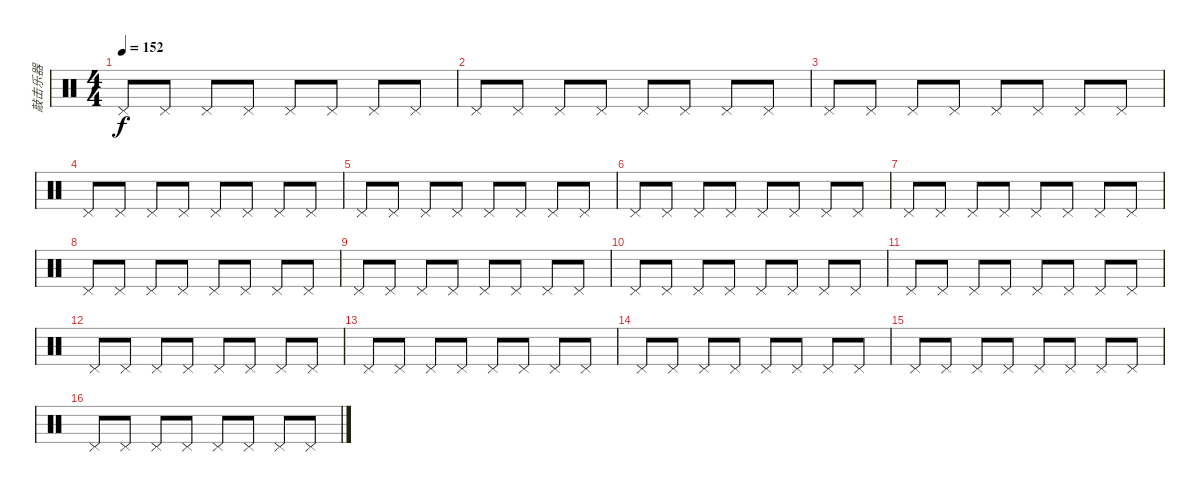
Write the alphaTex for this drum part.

\track ("敲击乐器" "敲击乐器") {instrument percussion}
\staff {score}
\articulation defaults
\ts (4 4)
\tempo 152
\clef neutral
\ks c "Pedal Hi-Hat (hit)".8{dy f} "Pedal Hi-Hat (hit)".8 "Pedal Hi-Hat (hit)".8 "Pedal Hi-Hat (hit)".8 "Pedal Hi-Hat (hit)".8 "Pedal Hi-Hat (hit)".8 "Pedal Hi-Hat (hit)".8 "Pedal Hi-Hat (hit)".8
|
"Pedal Hi-Hat (hit)".8 "Pedal Hi-Hat (hit)".8 "Pedal Hi-Hat (hit)".8 "Pedal Hi-Hat (hit)".8 "Pedal Hi-Hat (hit)".8 "Pedal Hi-Hat (hit)".8 "Pedal Hi-Hat (hit)".8 "Pedal Hi-Hat (hit)".8 |
"Pedal Hi-Hat (hit)".8 "Pedal Hi-Hat (hit)".8 "Pedal Hi-Hat (hit)".8 "Pedal Hi-Hat (hit)".8 "Pedal Hi-Hat (hit)".8 "Pedal Hi-Hat (hit)".8 "Pedal Hi-Hat (hit)".8 "Pedal Hi-Hat (hit)".8 |
"Pedal Hi-Hat (hit)".8 "Pedal Hi-Hat (hit)".8 "Pedal Hi-Hat (hit)".8 "Pedal Hi-Hat (hit)".8 "Pedal Hi-Hat (hit)".8 "Pedal Hi-Hat (hit)".8 "Pedal Hi-Hat (hit)".8 "Pedal Hi-Hat (hit)".8 |
"Pedal Hi-Hat (hit)".8 "Pedal Hi-Hat (hit)".8 "Pedal Hi-Hat (hit)".8 "Pedal Hi-Hat (hit)".8 "Pedal Hi-Hat (hit)".8 "Pedal Hi-Hat (hit)".8 "Pedal Hi-Hat (hit)".8 "Pedal Hi-Hat (hit)".8 |
"Pedal Hi-Hat (hit)".8 "Pedal Hi-Hat (hit)".8 "Pedal Hi-Hat (hit)".8 "Pedal Hi-Hat (hit)".8 "Pedal Hi-Hat (hit)".8 "Pedal Hi-Hat (hit)".8 "Pedal Hi-Hat (hit)".8 "Pedal Hi-Hat (hit)".8 |
"Pedal Hi-Hat (hit)".8 "Pedal Hi-Hat (hit)".8 "Pedal Hi-Hat (hit)".8 "Pedal Hi-Hat (hit)".8 "Pedal Hi-Hat (hit)".8 "Pedal Hi-Hat (hit)".8 "Pedal Hi-Hat (hit)".8 "Pedal Hi-Hat (hit)".8 |
"Pedal Hi-Hat (hit)".8 "Pedal Hi-Hat (hit)".8 "Pedal Hi-Hat (hit)".8 "Pedal Hi-Hat (hit)".8 "Pedal Hi-Hat (hit)".8 "Pedal Hi-Hat (hit)".8 "Pedal Hi-Hat (hit)".8 "Pedal Hi-Hat (hit)".8 |
"Pedal Hi-Hat (hit)".8 "Pedal Hi-Hat (hit)".8 "Pedal Hi-Hat (hit)".8 "Pedal Hi-Hat (hit)".8 "Pedal Hi-Hat (hit)".8 "Pedal Hi-Hat (hit)".8 "Pedal Hi-Hat (hit)".8 "Pedal Hi-Hat (hit)".8 |
"Pedal Hi-Hat (hit)".8 "Pedal Hi-Hat (hit)".8 "Pedal Hi-Hat (hit)".8 "Pedal Hi-Hat (hit)".8 "Pedal Hi-Hat (hit)".8 "Pedal Hi-Hat (hit)".8 "Pedal Hi-Hat (hit)".8 "Pedal Hi-Hat (hit)".8 |
"Pedal Hi-Hat (hit)".8 "Pedal Hi-Hat (hit)".8 "Pedal Hi-Hat (hit)".8 "Pedal Hi-Hat (hit)".8 "Pedal Hi-Hat (hit)".8 "Pedal Hi-Hat (hit)".8 "Pedal Hi-Hat (hit)".8 "Pedal Hi-Hat (hit)".8 |
"Pedal Hi-Hat (hit)".8 "Pedal Hi-Hat (hit)".8 "Pedal Hi-Hat (hit)".8 "Pedal Hi-Hat (hit)".8 "Pedal Hi-Hat (hit)".8 "Pedal Hi-Hat (hit)".8 "Pedal Hi-Hat (hit)".8 "Pedal Hi-Hat (hit)".8 |
"Pedal Hi-Hat (hit)".8 "Pedal Hi-Hat (hit)".8 "Pedal Hi-Hat (hit)".8 "Pedal Hi-Hat (hit)".8 "Pedal Hi-Hat (hit)".8 "Pedal Hi-Hat (hit)".8 "Pedal Hi-Hat (hit)".8 "Pedal Hi-Hat (hit)".8 |
"Pedal Hi-Hat (hit)".8 "Pedal Hi-Hat (hit)".8 "Pedal Hi-Hat (hit)".8 "Pedal Hi-Hat (hit)".8 "Pedal Hi-Hat (hit)".8 "Pedal Hi-Hat (hit)".8 "Pedal Hi-Hat (hit)".8 "Pedal Hi-Hat (hit)".8 |
"Pedal Hi-Hat (hit)".8 "Pedal Hi-Hat (hit)".8 "Pedal Hi-Hat (hit)".8 "Pedal Hi-Hat (hit)".8 "Pedal Hi-Hat (hit)".8 "Pedal Hi-Hat (hit)".8 "Pedal Hi-Hat (hit)".8 "Pedal Hi-Hat (hit)".8 |
"Pedal Hi-Hat (hit)".8 "Pedal Hi-Hat (hit)".8 "Pedal Hi-Hat (hit)".8 "Pedal Hi-Hat (hit)".8 "Pedal Hi-Hat (hit)".8 "Pedal Hi-Hat (hit)".8 "Pedal Hi-Hat (hit)".8 "Pedal Hi-Hat (hit)".8
